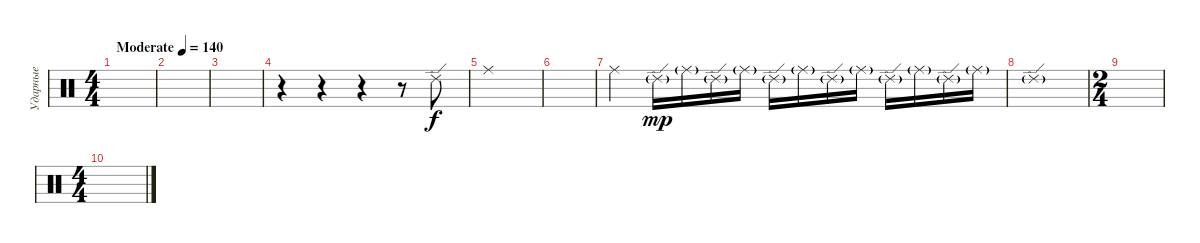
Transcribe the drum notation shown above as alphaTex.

\track ("Ударные" "Ударные") {instrument percussion}
\staff {score}
\articulation defaults
\ts (4 4)
\tempo (140 "Moderate")
\clef neutral
\ks c
|
|
|
r.4 r.4 r.4 r.8 "Ride (edge) 2".8 |
"Ride (middle)".1 |
|
"Ride (middle)".4 "Ride (edge) 2"{g}.16{dy mp} "Ride (middle)"{g}.16 "Ride (edge) 2"{g}.16 "Ride (middle)"{g}.16 "Ride (edge) 2"{g}.16 "Ride (middle)"{g}.16 "Ride (edge) 2"{g}.16 "Ride (middle)"{g}.16 "Ride (edge) 2"{g}.16 "Ride (middle)"{g}.16 "Ride (edge) 2"{g}.16 "Ride (middle)"{g}.16 |
"Ride (edge) 2"{g}.1 |
\ts (2 4)
|
\ts (4 4)
